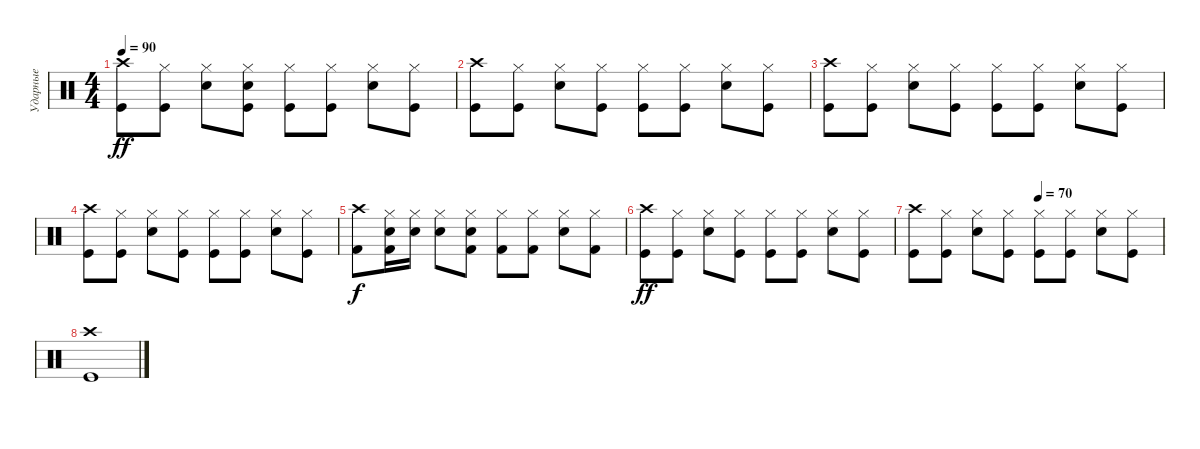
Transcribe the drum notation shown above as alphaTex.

\track ("Ударные" "Ударные") {instrument percussion}
\staff {score}
\articulation defaults
\ts (4 4)
\tempo 90
\clef neutral
\ks c
("Crash high (hit)" "Kick (hit)").8{dy ff} ("Hi-Hat (closed)" "Kick (hit)").8 ("Hi-Hat (closed)" "Snare (hit) 2").8 ("Hi-Hat (closed)" "Kick (hit)" "Snare (hit) 2").8 ("Hi-Hat (closed)" "Kick (hit)").8 ("Hi-Hat (closed)" "Kick (hit)").8 ("Hi-Hat (closed)" "Snare (hit) 2").8 ("Hi-Hat (closed)" "Kick (hit)").8 |
("Crash high (hit)" "Kick (hit)").8 ("Hi-Hat (closed)" "Kick (hit)").8 ("Hi-Hat (closed)" "Snare (hit) 2").8 ("Hi-Hat (closed)" "Kick (hit)").8 ("Hi-Hat (closed)" "Kick (hit)").8 ("Hi-Hat (closed)" "Kick (hit)").8 ("Hi-Hat (closed)" "Snare (hit) 2").8 ("Hi-Hat (closed)" "Kick (hit)").8 |
("Crash high (hit)" "Kick (hit)").8 ("Hi-Hat (closed)" "Kick (hit)").8 ("Hi-Hat (closed)" "Snare (hit) 2").8 ("Hi-Hat (closed)" "Kick (hit)").8 ("Hi-Hat (closed)" "Kick (hit)").8 ("Hi-Hat (closed)" "Kick (hit)").8 ("Hi-Hat (closed)" "Snare (hit) 2").8 ("Hi-Hat (closed)" "Kick (hit)").8 |
("Crash high (hit)" "Kick (hit)").8 ("Hi-Hat (closed)" "Kick (hit)").8 ("Hi-Hat (closed)" "Snare (hit) 2").8 ("Hi-Hat (closed)" "Kick (hit)").8 ("Hi-Hat (closed)" "Kick (hit)").8 ("Hi-Hat (closed)" "Kick (hit)").8 ("Hi-Hat (closed)" "Snare (hit) 2").8 ("Hi-Hat (closed)" "Kick (hit)").8 |
("Kick (hit) 2" "Crash high (hit)").8{dy f} ("Hi-Hat (closed)" "Snare (hit) 2" "Kick (hit) 2").16 ("Hi-Hat (closed)" "Snare (hit) 2").16 ("Hi-Hat (closed)" "Snare (hit) 2").8 ("Snare (hit) 2" "Hi-Hat (closed)" "Kick (hit) 2").8 ("Kick (hit) 2" "Hi-Hat (closed)").8 ("Kick (hit) 2" "Hi-Hat (closed)").8 ("Snare (hit) 2" "Hi-Hat (closed)").8 ("Kick (hit) 2" "Hi-Hat (closed)").8 |
("Crash high (hit)" "Kick (hit)").8{dy ff} ("Hi-Hat (closed)" "Kick (hit)").8 ("Hi-Hat (closed)" "Snare (hit) 2").8 ("Hi-Hat (closed)" "Kick (hit)").8 ("Hi-Hat (closed)" "Kick (hit)").8 ("Hi-Hat (closed)" "Kick (hit)").8 ("Hi-Hat (closed)" "Snare (hit) 2").8 ("Hi-Hat (closed)" "Kick (hit)").8 |
\tempo (70 0.5)
("Crash high (hit)" "Kick (hit)").8 ("Hi-Hat (closed)" "Kick (hit)").8 ("Hi-Hat (closed)" "Snare (hit) 2").8 ("Hi-Hat (closed)" "Kick (hit)").8 ("Hi-Hat (closed)" "Kick (hit)").8 ("Hi-Hat (closed)" "Kick (hit)").8 ("Hi-Hat (closed)" "Snare (hit) 2").8 ("Hi-Hat (closed)" "Kick (hit)").8 |
("Crash high (hit)" "Kick (hit)").1
